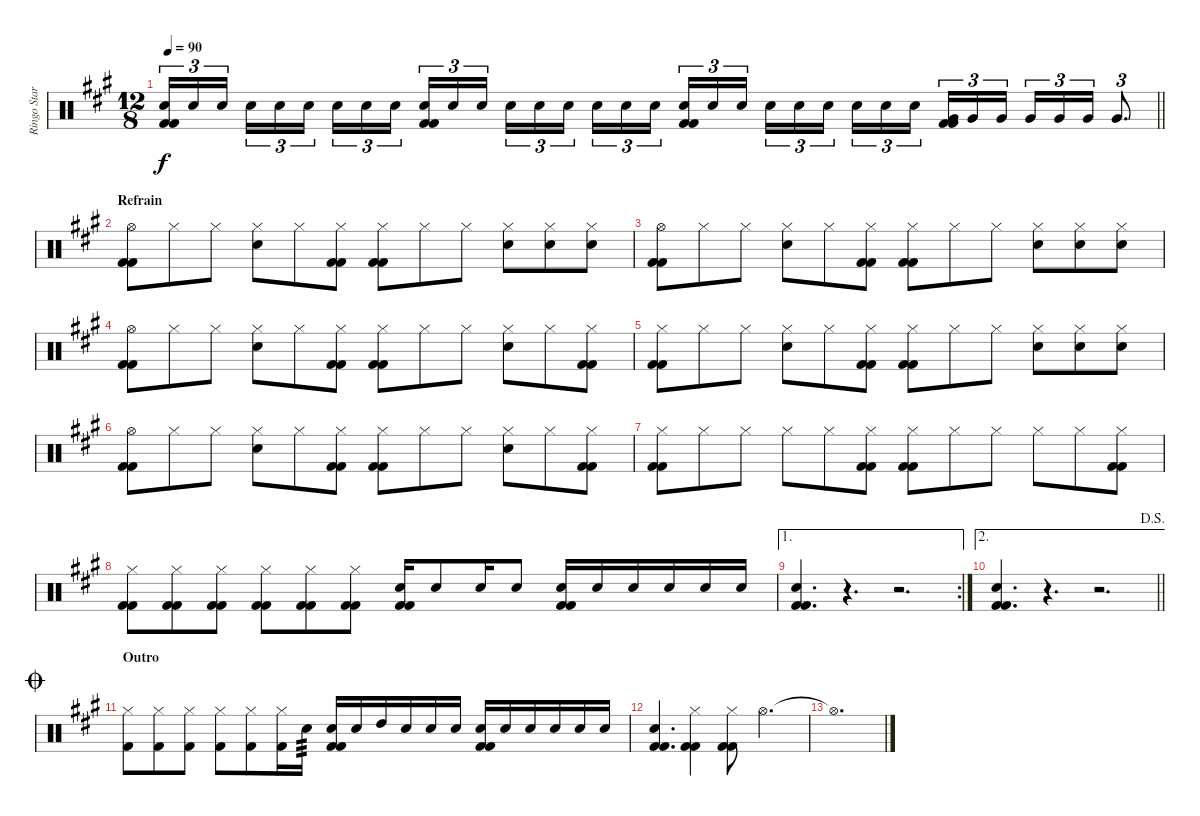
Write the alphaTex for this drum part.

\track ("Ringo Star's drums" "Ringo Star") {instrument percussion}
\staff {score}
\articulation defaults
\ts (12 8)
\tempo 90
\clef neutral
\barLineRight lightlight
\ks a
("Snare (hit) 2" "Kick (hit) 2" "Kick (hit) 2").16{tu (3 2) dy f} "Snare (hit) 2".16{tu (3 2)} "Snare (hit) 2".16{tu (3 2) beam splitsecondary} "Snare (hit) 2".16{tu (3 2)} "Snare (hit) 2".16{tu (3 2)} "Snare (hit) 2".16{tu (3 2) beam splitsecondary} "Snare (hit) 2".16{tu (3 2)} "Snare (hit) 2".16{tu (3 2)} "Snare (hit) 2".16{tu (3 2)} ("Snare (hit) 2" "Kick (hit) 2" "Kick (hit) 2").16{tu (3 2)} "Snare (hit) 2".16{tu (3 2)} "Snare (hit) 2".16{tu (3 2) beam splitsecondary} "Snare (hit) 2".16{tu (3 2)} "Snare (hit) 2".16{tu (3 2)} "Snare (hit) 2".16{tu (3 2) beam splitsecondary} "Snare (hit) 2".16{tu (3 2)} "Snare (hit) 2".16{tu (3 2)} "Snare (hit) 2".16{tu (3 2)} ("Snare (hit) 2" "Kick (hit) 2" "Kick (hit) 2").16{tu (3 2)} "Snare (hit) 2".16{tu (3 2)} "Snare (hit) 2".16{tu (3 2) beam splitsecondary} "Snare (hit) 2".16{tu (3 2)} "Snare (hit) 2".16{tu (3 2)} "Snare (hit) 2".16{tu (3 2) beam splitsecondary} "Snare (hit) 2".16{tu (3 2)} "Snare (hit) 2".16{tu (3 2)} "Snare (hit) 2".16{tu (3 2)} ("Very Low Tom (hit)" "Kick (hit) 2" "Kick (hit) 2").16{tu (3 2)} "Very Low Tom (hit)".16{tu (3 2)} "Very Low Tom (hit)".16{tu (3 2) beam splitsecondary} "Very Low Tom (hit)".16{tu (3 2)} "Very Low Tom (hit)".16{tu (3 2)} "Very Low Tom (hit)".16{tu (3 2)} "Very Low Tom (hit)".8{d tu (3 2)} |
\section ("" "Refrain")
("Hi-Hat (open)" "Kick (hit) 2" "Kick (hit) 2").8 "Hi-Hat (closed)".8 "Hi-Hat (closed)".8 ("Hi-Hat (closed)" "Snare (hit) 2").8 "Hi-Hat (closed)".8 ("Hi-Hat (closed)" "Kick (hit) 2" "Kick (hit) 2").8 ("Hi-Hat (closed)" "Kick (hit) 2" "Kick (hit) 2").8 "Hi-Hat (closed)".8 "Hi-Hat (closed)".8 ("Hi-Hat (closed)" "Snare (hit) 2").8 ("Hi-Hat (closed)" "Snare (hit) 2").8 ("Hi-Hat (closed)" "Snare (hit) 2").8 |
("Hi-Hat (open)" "Kick (hit) 2" "Kick (hit) 2").8 "Hi-Hat (closed)".8 "Hi-Hat (closed)".8 ("Hi-Hat (closed)" "Snare (hit) 2").8 "Hi-Hat (closed)".8 ("Hi-Hat (closed)" "Kick (hit) 2" "Kick (hit) 2").8 ("Hi-Hat (closed)" "Kick (hit) 2" "Kick (hit) 2").8 "Hi-Hat (closed)".8 "Hi-Hat (closed)".8 ("Hi-Hat (closed)" "Snare (hit) 2").8 ("Hi-Hat (closed)" "Snare (hit) 2").8 ("Hi-Hat (closed)" "Snare (hit) 2").8 |
("Hi-Hat (open)" "Kick (hit) 2" "Kick (hit) 2").8 "Hi-Hat (closed)".8 "Hi-Hat (closed)".8 ("Hi-Hat (closed)" "Snare (hit) 2").8 "Hi-Hat (closed)".8 ("Hi-Hat (closed)" "Kick (hit) 2" "Kick (hit) 2").8 ("Hi-Hat (closed)" "Kick (hit) 2" "Kick (hit) 2").8 "Hi-Hat (closed)".8 "Hi-Hat (closed)".8 ("Hi-Hat (closed)" "Snare (hit) 2").8 "Hi-Hat (closed)".8 ("Hi-Hat (closed)" "Kick (hit) 2" "Kick (hit) 2").8 |
("Hi-Hat (closed)" "Kick (hit) 2" "Kick (hit) 2").8 "Hi-Hat (closed)".8 "Hi-Hat (closed)".8 ("Hi-Hat (closed)" "Snare (hit) 2").8 "Hi-Hat (closed)".8 ("Hi-Hat (closed)" "Kick (hit) 2" "Kick (hit) 2").8 ("Hi-Hat (closed)" "Kick (hit) 2" "Kick (hit) 2").8 "Hi-Hat (closed)".8 "Hi-Hat (closed)".8 ("Hi-Hat (closed)" "Snare (hit) 2").8 ("Hi-Hat (closed)" "Snare (hit) 2").8 ("Hi-Hat (closed)" "Snare (hit) 2").8 |
("Hi-Hat (open)" "Kick (hit) 2" "Kick (hit) 2").8 "Hi-Hat (closed)".8 "Hi-Hat (closed)".8 ("Hi-Hat (closed)" "Snare (hit) 2").8 "Hi-Hat (closed)".8 ("Hi-Hat (closed)" "Kick (hit) 2" "Kick (hit) 2").8 ("Hi-Hat (closed)" "Kick (hit) 2" "Kick (hit) 2").8 "Hi-Hat (closed)".8 "Hi-Hat (closed)".8 ("Hi-Hat (closed)" "Snare (hit) 2").8 "Hi-Hat (closed)".8 ("Hi-Hat (closed)" "Kick (hit) 2" "Kick (hit) 2").8 |
("Hi-Hat (closed)" "Kick (hit) 2" "Kick (hit) 2").8 "Hi-Hat (closed)".8 "Hi-Hat (closed)".8 "Hi-Hat (closed)".8 "Hi-Hat (closed)".8 ("Hi-Hat (closed)" "Kick (hit) 2" "Kick (hit) 2").8 ("Hi-Hat (closed)" "Kick (hit) 2" "Kick (hit) 2").8 "Hi-Hat (closed)".8 "Hi-Hat (closed)".8 "Hi-Hat (closed)".8 "Hi-Hat (closed)".8 ("Hi-Hat (closed)" "Kick (hit) 2" "Kick (hit) 2").8 |
("Hi-Hat (closed)" "Kick (hit) 2" "Kick (hit) 2").8 ("Hi-Hat (closed)" "Kick (hit) 2" "Kick (hit) 2").8 ("Hi-Hat (closed)" "Kick (hit) 2" "Kick (hit) 2").8 ("Hi-Hat (closed)" "Kick (hit) 2" "Kick (hit) 2").8 ("Hi-Hat (closed)" "Kick (hit) 2" "Kick (hit) 2").8 ("Hi-Hat (closed)" "Kick (hit) 2" "Kick (hit) 2").8 ("Snare (hit) 2" "Kick (hit) 2" "Kick (hit) 2").16 "Snare (hit) 2".8 "Snare (hit) 2".16 "Snare (hit) 2".8 ("Snare (hit) 2" "Kick (hit) 2" "Kick (hit) 2").16 "Snare (hit) 2".16 "Snare (hit) 2".16 "Snare (hit) 2".16 "Snare (hit) 2".16 "Snare (hit) 2".16 |
\ae 1
\rc 2
("Snare (hit) 2" "Kick (hit) 2" "Kick (hit) 2").4{d} r.4{d} r.2{d} |
\ae 2
\jump dalsegno
\barLineRight lightlight
("Snare (hit) 2" "Kick (hit) 2" "Kick (hit) 2").4{d} r.4{d} r.2{d} |
\section ("" "Outro")
\jump coda
("Hi-Hat (closed)" "Kick (hit) 2").8 ("Hi-Hat (closed)" "Kick (hit) 2").8 ("Hi-Hat (closed)" "Kick (hit) 2").8 ("Hi-Hat (closed)" "Kick (hit) 2").8 ("Hi-Hat (closed)" "Kick (hit) 2").8 ("Hi-Hat (closed)" "Kick (hit) 2").16 "Snare (hit) 2".16{tp 3} ("Snare (hit) 2" "Kick (hit) 2" "Kick (hit) 2").16 "Snare (hit) 2".16 "High Tom (hit)".16 "Snare (hit) 2".16 "Snare (hit) 2".16 "Snare (hit) 2".16 ("Snare (hit) 2" "Kick (hit) 2" "Kick (hit) 2").16 "Snare (hit) 2".16 "Snare (hit) 2".16 "Snare (hit) 2".16 "Snare (hit) 2".16 "Snare (hit) 2".16 |
("Snare (hit) 2" "Kick (hit) 2" "Kick (hit) 2").4{d} ("Hi-Hat (closed)" "Kick (hit) 2" "Kick (hit) 2").4 ("Hi-Hat (closed)" "Kick (hit) 2" "Kick (hit) 2").8 "Hi-Hat (open)".2{d} |
"Hi-Hat (open)"{t}.1{d}
